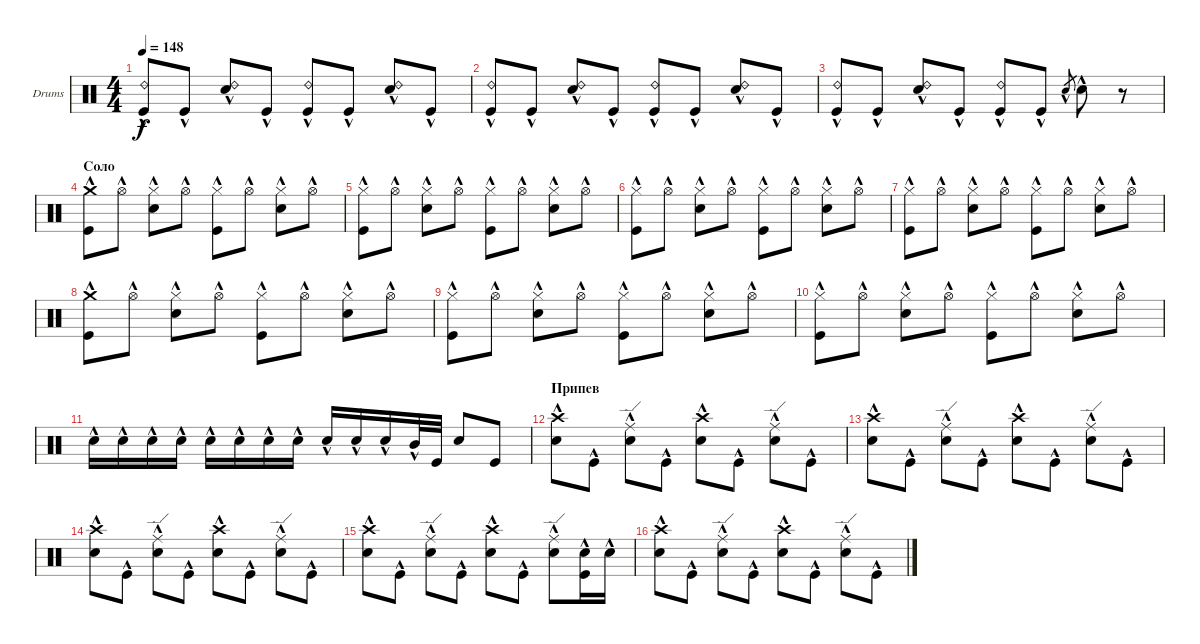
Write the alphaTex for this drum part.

\bracketExtendMode groupsimilarinstruments
\firstSystemTrackNameOrientation horizontal
\otherSystemsTrackNameOrientation horizontal
\track ("Drumkit" "Drums") {instrument percussion}
\staff {score}
\articulation defaults
\ts (4 4)
\tempo 148
\clef neutral
\ks c
("Ride (bell) 2"{hac} "Kick (hit)"{hac}).8{dy f} "Kick (hit)"{hac}.8 ("Snare (hit) 2"{hac} "Ride (bell) 2"{hac}).8 "Kick (hit)"{hac}.8 ("Ride (bell) 2"{hac} "Kick (hit)"{hac}).8 "Kick (hit)"{hac}.8 ("Snare (hit) 2"{hac} "Ride (bell) 2"{hac}).8 "Kick (hit)"{hac}.8 |
("Ride (bell) 2"{hac} "Kick (hit)"{hac}).8 "Kick (hit)"{hac}.8 ("Snare (hit) 2"{hac} "Ride (bell) 2"{hac}).8 "Kick (hit)"{hac}.8 ("Ride (bell) 2"{hac} "Kick (hit)"{hac}).8 "Kick (hit)"{hac}.8 ("Snare (hit) 2"{hac} "Ride (bell) 2"{hac}).8 "Kick (hit)"{hac}.8 |
("Ride (bell) 2"{hac} "Kick (hit)"{hac}).8 "Kick (hit)"{hac}.8 ("Snare (hit) 2"{hac} "Ride (bell) 2"{hac}).8 "Kick (hit)"{hac}.8 ("Ride (bell) 2"{hac} "Kick (hit)"{hac}).8 "Kick (hit)"{hac}.8 "Snare (hit) 2"{hac}.8{gr} "Snare (hit) 2"{hac}.8 r.8 |
\section ("" "Соло")
("Kick (hit)"{hac} "Crash medium (hit)"{hac}).8 "Hi-Hat (open)"{hac}.8 ("Snare (hit) 2"{hac} "Hi-Hat (closed)"{hac}).8 "Hi-Hat (open)"{hac}.8 ("Kick (hit)"{hac} "Hi-Hat (closed)"{hac}).8 "Hi-Hat (open)"{hac}.8 ("Snare (hit) 2"{hac} "Hi-Hat (closed)"{hac}).8 "Hi-Hat (open)"{hac}.8 |
("Kick (hit)"{hac} "Hi-Hat (closed)"{hac}).8 "Hi-Hat (open)"{hac}.8 ("Snare (hit) 2"{hac} "Hi-Hat (closed)"{hac}).8 "Hi-Hat (open)"{hac}.8 ("Kick (hit)"{hac} "Hi-Hat (closed)"{hac}).8 "Hi-Hat (open)"{hac}.8 ("Snare (hit) 2"{hac} "Hi-Hat (closed)"{hac}).8 "Hi-Hat (open)"{hac}.8 |
("Kick (hit)"{hac} "Hi-Hat (closed)"{hac}).8 "Hi-Hat (open)"{hac}.8 ("Snare (hit) 2"{hac} "Hi-Hat (closed)"{hac}).8 "Hi-Hat (open)"{hac}.8 ("Kick (hit)"{hac} "Hi-Hat (closed)"{hac}).8 "Hi-Hat (open)"{hac}.8 ("Snare (hit) 2"{hac} "Hi-Hat (closed)"{hac}).8 "Hi-Hat (open)"{hac}.8 |
("Kick (hit)"{hac} "Hi-Hat (closed)"{hac}).8 "Hi-Hat (open)"{hac}.8 ("Snare (hit) 2"{hac} "Hi-Hat (closed)"{hac}).8 "Hi-Hat (open)"{hac}.8 ("Kick (hit)"{hac} "Hi-Hat (closed)"{hac}).8 "Hi-Hat (open)"{hac}.8 ("Snare (hit) 2"{hac} "Hi-Hat (closed)"{hac}).8 "Hi-Hat (open)"{hac}.8 |
("Kick (hit)"{hac} "Crash medium (hit)"{hac}).8 "Hi-Hat (open)"{hac}.8 ("Snare (hit) 2"{hac} "Hi-Hat (closed)"{hac}).8 "Hi-Hat (open)"{hac}.8 ("Kick (hit)"{hac} "Hi-Hat (closed)"{hac}).8 "Hi-Hat (open)"{hac}.8 ("Snare (hit) 2"{hac} "Hi-Hat (closed)"{hac}).8 "Hi-Hat (open)"{hac}.8 |
("Kick (hit)"{hac} "Hi-Hat (closed)"{hac}).8 "Hi-Hat (open)"{hac}.8 ("Snare (hit) 2"{hac} "Hi-Hat (closed)"{hac}).8 "Hi-Hat (open)"{hac}.8 ("Kick (hit)"{hac} "Hi-Hat (closed)"{hac}).8 "Hi-Hat (open)"{hac}.8 ("Snare (hit) 2"{hac} "Hi-Hat (closed)"{hac}).8 "Hi-Hat (open)"{hac}.8 |
("Kick (hit)"{hac} "Hi-Hat (closed)"{hac}).8 "Hi-Hat (open)"{hac}.8 ("Snare (hit) 2"{hac} "Hi-Hat (closed)"{hac}).8 "Hi-Hat (open)"{hac}.8 ("Kick (hit)"{hac} "Hi-Hat (closed)"{hac}).8 "Hi-Hat (open)"{hac}.8 ("Snare (hit) 2"{hac} "Hi-Hat (closed)"{hac}).8 "Hi-Hat (open)"{hac}.8 |
"Snare (hit) 2"{hac}.16 "Snare (hit) 2"{hac}.16 "Snare (hit) 2"{hac}.16 "Snare (hit) 2"{hac}.16 "Snare (hit) 2"{hac}.16 "Snare (hit) 2"{hac}.16 "Snare (hit) 2"{hac}.16 "Snare (hit) 2"{hac}.16 "Snare (hit) 2"{hac}.16 "Snare (hit) 2"{hac}.16 "Snare (hit) 2"{hac}.16 "Mid Tom (hit)"{hac}.32 "Kick (hit)".32 "Snare (hit) 2".8 "Kick (hit)".8 |
\section ("" "Припев")
("Snare (hit) 2"{hac} "Crash high (hit)"{hac}).8 "Kick (hit)"{hac}.8 ("Snare (hit) 2"{hac} "Ride (edge)"{hac}).8 "Kick (hit)"{hac}.8 ("Snare (hit) 2"{hac} "Crash high (hit)"{hac}).8 "Kick (hit)"{hac}.8 ("Snare (hit) 2"{hac} "Ride (edge)"{hac}).8 "Kick (hit)"{hac}.8 |
("Snare (hit) 2"{hac} "Crash high (hit)"{hac}).8 "Kick (hit)"{hac}.8 ("Snare (hit) 2"{hac} "Ride (edge)"{hac}).8 "Kick (hit)"{hac}.8 ("Snare (hit) 2"{hac} "Crash high (hit)"{hac}).8 "Kick (hit)"{hac}.8 ("Snare (hit) 2"{hac} "Ride (edge)"{hac}).8 "Kick (hit)"{hac}.8 |
("Snare (hit) 2"{hac} "Crash high (hit)"{hac}).8 "Kick (hit)"{hac}.8 ("Snare (hit) 2"{hac} "Ride (edge)"{hac}).8 "Kick (hit)"{hac}.8 ("Snare (hit) 2"{hac} "Crash high (hit)"{hac}).8 "Kick (hit)"{hac}.8 ("Snare (hit) 2"{hac} "Ride (edge)"{hac}).8 "Kick (hit)"{hac}.8 |
("Snare (hit) 2"{hac} "Crash high (hit)"{hac}).8 "Kick (hit)"{hac}.8 ("Snare (hit) 2"{hac} "Ride (edge)"{hac}).8 "Kick (hit)"{hac}.8 ("Snare (hit) 2"{hac} "Crash high (hit)"{hac}).8 "Kick (hit)"{hac}.8 ("Snare (hit) 2"{hac} "Ride (edge)"{hac}).8 ("Kick (hit)"{hac} "Snare (hit) 2"{hac}).16 "Snare (hit) 2"{hac}.16 |
("Snare (hit) 2"{hac} "Crash high (hit)"{hac}).8 "Kick (hit)"{hac}.8 ("Snare (hit) 2"{hac} "Ride (edge)"{hac}).8 "Kick (hit)"{hac}.8 ("Snare (hit) 2"{hac} "Crash high (hit)"{hac}).8 "Kick (hit)"{hac}.8 ("Snare (hit) 2"{hac} "Ride (edge)"{hac}).8 "Kick (hit)"{hac}.8
